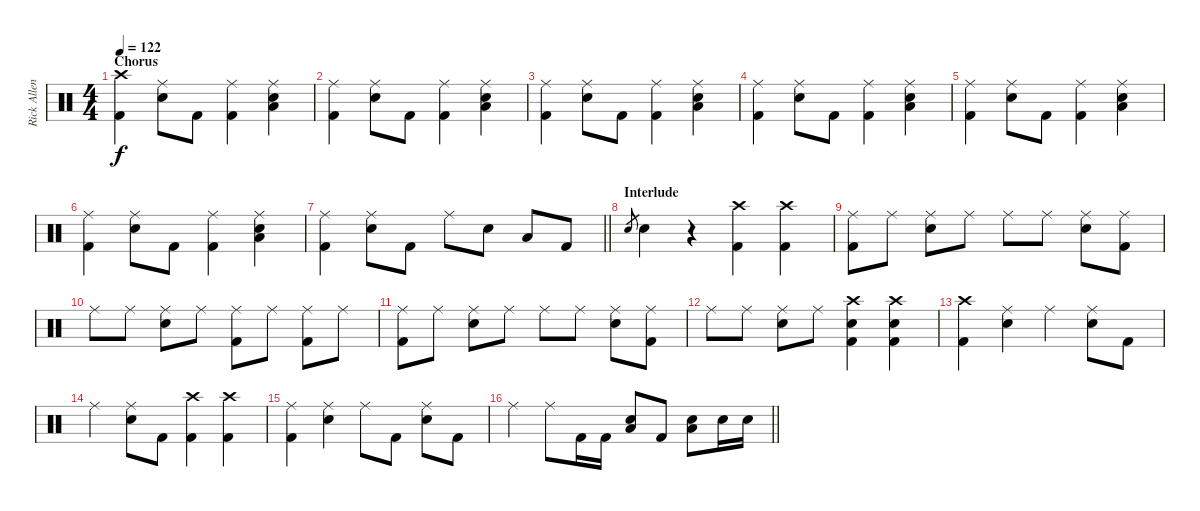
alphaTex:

\track ("Rick Allen" "Rick Allen") {instrument percussion}
\staff {score}
\articulation defaults
\ts (4 4)
\section ("" "Chorus")
\tempo 122
\clef neutral
\ks c
("Crash high (hit)" "Kick (hit) 2").4{dy f} ("Ride (middle)" "Electric Snare (hit)").8 "Kick (hit) 2".8 ("Ride (middle)" "Kick (hit) 2").4 ("Ride (middle)" "Low Tom (hit)" "Electric Snare (hit)").4 |
("Ride (middle)" "Kick (hit) 2").4 ("Ride (middle)" "Electric Snare (hit)").8 "Kick (hit) 2".8 ("Ride (middle)" "Kick (hit) 2").4 ("Ride (middle)" "Low Tom (hit)" "Electric Snare (hit)").4 |
("Ride (middle)" "Kick (hit) 2").4 ("Ride (middle)" "Electric Snare (hit)").8 "Kick (hit) 2".8 ("Ride (middle)" "Kick (hit) 2").4 ("Ride (middle)" "Low Tom (hit)" "Electric Snare (hit)").4 |
("Ride (middle)" "Kick (hit) 2").4 ("Ride (middle)" "Electric Snare (hit)").8 "Kick (hit) 2".8 ("Ride (middle)" "Kick (hit) 2").4 ("Ride (middle)" "Low Tom (hit)" "Electric Snare (hit)").4 |
("Ride (middle)" "Kick (hit) 2").4 ("Ride (middle)" "Electric Snare (hit)").8 "Kick (hit) 2".8 ("Ride (middle)" "Kick (hit) 2").4 ("Ride (middle)" "Low Tom (hit)" "Electric Snare (hit)").4 |
("Ride (middle)" "Kick (hit) 2").4 ("Ride (middle)" "Electric Snare (hit)").8 "Kick (hit) 2".8 ("Ride (middle)" "Kick (hit) 2").4 ("Ride (middle)" "Low Tom (hit)" "Electric Snare (hit)").4 |
\barLineRight lightlight
("Ride (middle)" "Kick (hit) 2").4 ("Ride (middle)" "Electric Snare (hit)").8 "Kick (hit) 2".8 "Ride (middle)".8 "Electric Snare (hit)".8 "Low Tom (hit)".8 "Kick (hit) 2".8 |
\section ("" "Interlude")
"Electric Snare (hit)".8{gr} "Electric Snare (hit)".4 r.4 ("Crash high (hit)" "Kick (hit) 2").4 ("Crash high (hit)" "Kick (hit) 2").4 |
("Ride (middle)" "Kick (hit) 2").8 "Ride (middle)".8 ("Ride (middle)" "Electric Snare (hit)").8 "Ride (middle)".8 "Ride (middle)".8 "Ride (middle)".8 ("Ride (middle)" "Electric Snare (hit)").8 ("Ride (middle)" "Kick (hit) 2").8 |
"Ride (middle)".8 "Ride (middle)".8 ("Ride (middle)" "Electric Snare (hit)").8 "Ride (middle)".8 ("Ride (middle)" "Kick (hit) 2").8 "Ride (middle)".8 ("Ride (middle)" "Kick (hit) 2").8 "Ride (middle)".8 |
("Ride (middle)" "Kick (hit) 2").8 "Ride (middle)".8 ("Ride (middle)" "Electric Snare (hit)").8 "Ride (middle)".8 "Ride (middle)".8 "Ride (middle)".8 ("Ride (middle)" "Electric Snare (hit)").8 ("Ride (middle)" "Kick (hit) 2").8 |
"Ride (middle)".8 "Ride (middle)".8 ("Ride (middle)" "Electric Snare (hit)").8 "Ride (middle)".8 ("Crash high (hit)" "Electric Snare (hit)" "Kick (hit) 2").4 ("Crash high (hit)" "Electric Snare (hit)" "Kick (hit) 2").4 |
("Crash high (hit)" "Kick (hit) 2").4 ("Ride (middle)" "Electric Snare (hit)").4 "Ride (middle)".4 ("Ride (middle)" "Electric Snare (hit)").8 "Kick (hit) 2".8 |
"Ride (middle)".4 ("Ride (middle)" "Electric Snare (hit)").8 "Kick (hit) 2".8 ("Crash high (hit)" "Kick (hit) 2").4 ("Crash high (hit)" "Kick (hit) 2").4 |
("Ride (middle)" "Kick (hit) 2").4 ("Ride (middle)" "Electric Snare (hit)").4 "Ride (middle)".8 "Kick (hit) 2".8 ("Ride (middle)" "Electric Snare (hit)").8 "Kick (hit) 2".8 |
\barLineRight lightlight "Ride (middle)".4 "Ride (middle)".8 "Kick (hit) 2".16 "Kick (hit) 2".16
("Low Tom (hit)" "Electric Snare (hit)").8 "Kick (hit) 2".8 ("Low Tom (hit)" "Electric Snare (hit)").8 "Electric Snare (hit)".16 "Electric Snare (hit)".16
